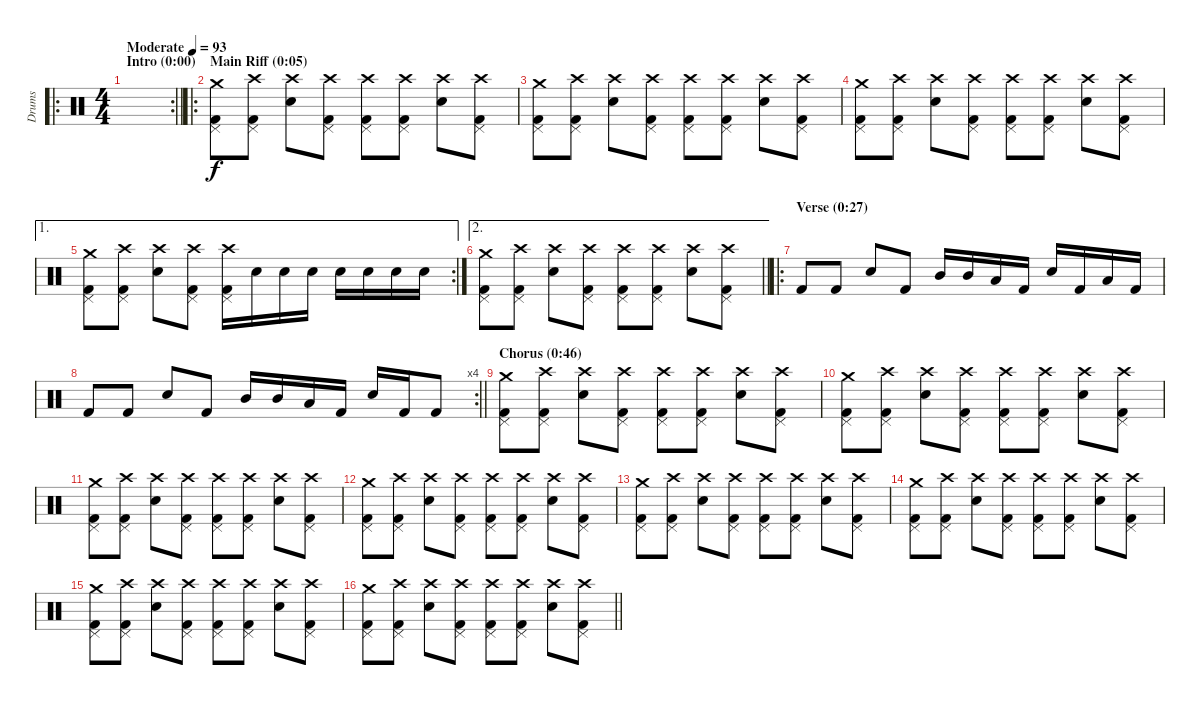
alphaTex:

\track ("Drums" "Drums") {instrument percussion}
\staff {score}
\articulation defaults
\ro
\rc 2
\ts (4 4)
\section ("" "Intro (0:00)")
\tempo (93 "Moderate")
\clef neutral
\barLineRight lightlight
\ks c
|
\ro
\section ("" "Main Riff (0:05)")
("Crash medium (hit)" "Pedal Hi-Hat (hit)" "Kick (hit) 2").8 ("Crash high (hit)" "Pedal Hi-Hat (hit)" "Kick (hit) 2").8 ("Crash high (hit)" "Electric Snare (hit)").8 ("Crash high (hit)" "Pedal Hi-Hat (hit)" "Kick (hit) 2").8 ("Crash high (hit)" "Pedal Hi-Hat (hit)" "Kick (hit) 2").8 ("Crash high (hit)" "Pedal Hi-Hat (hit)" "Kick (hit) 2").8 ("Crash high (hit)" "Electric Snare (hit)").8 ("Crash high (hit)" "Pedal Hi-Hat (hit)" "Kick (hit) 2").8 |
("Crash medium (hit)" "Pedal Hi-Hat (hit)" "Kick (hit) 2").8 ("Crash high (hit)" "Pedal Hi-Hat (hit)" "Kick (hit) 2").8 ("Crash high (hit)" "Electric Snare (hit)").8 ("Crash high (hit)" "Pedal Hi-Hat (hit)" "Kick (hit) 2").8 ("Crash high (hit)" "Pedal Hi-Hat (hit)" "Kick (hit) 2").8 ("Crash high (hit)" "Pedal Hi-Hat (hit)" "Kick (hit) 2").8 ("Crash high (hit)" "Electric Snare (hit)").8 ("Crash high (hit)" "Pedal Hi-Hat (hit)" "Kick (hit) 2").8 |
("Crash medium (hit)" "Pedal Hi-Hat (hit)" "Kick (hit) 2").8 ("Crash high (hit)" "Pedal Hi-Hat (hit)" "Kick (hit) 2").8 ("Crash high (hit)" "Electric Snare (hit)").8 ("Crash high (hit)" "Pedal Hi-Hat (hit)" "Kick (hit) 2").8 ("Crash high (hit)" "Pedal Hi-Hat (hit)" "Kick (hit) 2").8 ("Crash high (hit)" "Pedal Hi-Hat (hit)" "Kick (hit) 2").8 ("Crash high (hit)" "Electric Snare (hit)").8 ("Crash high (hit)" "Pedal Hi-Hat (hit)" "Kick (hit) 2").8 |
\ae 1
\rc 2
("Crash medium (hit)" "Pedal Hi-Hat (hit)" "Kick (hit) 2").8 ("Crash high (hit)" "Pedal Hi-Hat (hit)" "Kick (hit) 2").8 ("Crash high (hit)" "Electric Snare (hit)").8 ("Crash high (hit)" "Pedal Hi-Hat (hit)" "Kick (hit) 2").8 ("Crash high (hit)" "Pedal Hi-Hat (hit)" "Kick (hit) 2").16 "Electric Snare (hit)".16 "Electric Snare (hit)".16 "Electric Snare (hit)".16 "Electric Snare (hit)".16 "Electric Snare (hit)".16 "Electric Snare (hit)".16 "Electric Snare (hit)".16 |
\ae 2
\barLineRight lightlight
("Crash medium (hit)" "Pedal Hi-Hat (hit)" "Kick (hit) 2").8 ("Crash high (hit)" "Pedal Hi-Hat (hit)" "Kick (hit) 2").8 ("Crash high (hit)" "Electric Snare (hit)").8 ("Crash high (hit)" "Pedal Hi-Hat (hit)" "Kick (hit) 2").8 ("Crash high (hit)" "Pedal Hi-Hat (hit)" "Kick (hit) 2").8 ("Crash high (hit)" "Pedal Hi-Hat (hit)" "Kick (hit) 2").8 ("Crash high (hit)" "Electric Snare (hit)").8 ("Crash high (hit)" "Pedal Hi-Hat (hit)" "Kick (hit) 2").8 |
\ro
\section ("" "Verse (0:27)")
"Kick (hit) 2".8 "Kick (hit) 2".8 "Electric Snare (hit)".8 "Kick (hit) 2".8 "Mid Tom (hit)".16 "Mid Tom (hit)".16 "Low Tom (hit)".16 "Kick (hit) 2".16 "Electric Snare (hit)".16 "Kick (hit) 2".16 "Low Tom (hit)".16 "Kick (hit) 2".16 |
\rc 4
\barLineRight lightlight "Kick (hit) 2".8 "Kick (hit) 2".8 "Electric Snare (hit)".8 "Kick (hit) 2".8 "Mid Tom (hit)".16 "Mid Tom (hit)".16 "Low Tom (hit)".16 "Kick (hit) 2".16 "Electric Snare (hit)".16 "Kick (hit) 2".16 "Kick (hit) 2".8
|
\section ("" "Chorus (0:46)")
("Crash medium (hit)" "Pedal Hi-Hat (hit)" "Kick (hit) 2").8 ("Crash high (hit)" "Pedal Hi-Hat (hit)" "Kick (hit) 2").8 ("Crash high (hit)" "Electric Snare (hit)").8 ("Crash high (hit)" "Pedal Hi-Hat (hit)" "Kick (hit) 2").8 ("Crash high (hit)" "Pedal Hi-Hat (hit)" "Kick (hit) 2").8 ("Crash high (hit)" "Pedal Hi-Hat (hit)" "Kick (hit) 2").8 ("Crash high (hit)" "Electric Snare (hit)").8 ("Crash high (hit)" "Pedal Hi-Hat (hit)" "Kick (hit) 2").8 |
("Crash medium (hit)" "Pedal Hi-Hat (hit)" "Kick (hit) 2").8 ("Crash high (hit)" "Pedal Hi-Hat (hit)" "Kick (hit) 2").8 ("Crash high (hit)" "Electric Snare (hit)").8 ("Crash high (hit)" "Pedal Hi-Hat (hit)" "Kick (hit) 2").8 ("Crash high (hit)" "Pedal Hi-Hat (hit)" "Kick (hit) 2").8 ("Crash high (hit)" "Pedal Hi-Hat (hit)" "Kick (hit) 2").8 ("Crash high (hit)" "Electric Snare (hit)").8 ("Crash high (hit)" "Pedal Hi-Hat (hit)" "Kick (hit) 2").8 |
("Crash medium (hit)" "Pedal Hi-Hat (hit)" "Kick (hit) 2").8 ("Crash high (hit)" "Pedal Hi-Hat (hit)" "Kick (hit) 2").8 ("Crash high (hit)" "Electric Snare (hit)").8 ("Crash high (hit)" "Pedal Hi-Hat (hit)" "Kick (hit) 2").8 ("Crash high (hit)" "Pedal Hi-Hat (hit)" "Kick (hit) 2").8 ("Crash high (hit)" "Pedal Hi-Hat (hit)" "Kick (hit) 2").8 ("Crash high (hit)" "Electric Snare (hit)").8 ("Crash high (hit)" "Pedal Hi-Hat (hit)" "Kick (hit) 2").8 |
("Crash medium (hit)" "Pedal Hi-Hat (hit)" "Kick (hit) 2").8 ("Crash high (hit)" "Pedal Hi-Hat (hit)" "Kick (hit) 2").8 ("Crash high (hit)" "Electric Snare (hit)").8 ("Crash high (hit)" "Pedal Hi-Hat (hit)" "Kick (hit) 2").8 ("Crash high (hit)" "Pedal Hi-Hat (hit)" "Kick (hit) 2").8 ("Crash high (hit)" "Pedal Hi-Hat (hit)" "Kick (hit) 2").8 ("Crash high (hit)" "Electric Snare (hit)").8 ("Crash high (hit)" "Pedal Hi-Hat (hit)" "Kick (hit) 2").8 |
("Crash medium (hit)" "Pedal Hi-Hat (hit)" "Kick (hit) 2").8 ("Crash high (hit)" "Pedal Hi-Hat (hit)" "Kick (hit) 2").8 ("Crash high (hit)" "Electric Snare (hit)").8 ("Crash high (hit)" "Pedal Hi-Hat (hit)" "Kick (hit) 2").8 ("Crash high (hit)" "Pedal Hi-Hat (hit)" "Kick (hit) 2").8 ("Crash high (hit)" "Pedal Hi-Hat (hit)" "Kick (hit) 2").8 ("Crash high (hit)" "Electric Snare (hit)").8 ("Crash high (hit)" "Pedal Hi-Hat (hit)" "Kick (hit) 2").8 |
("Crash medium (hit)" "Pedal Hi-Hat (hit)" "Kick (hit) 2").8 ("Crash high (hit)" "Pedal Hi-Hat (hit)" "Kick (hit) 2").8 ("Crash high (hit)" "Electric Snare (hit)").8 ("Crash high (hit)" "Pedal Hi-Hat (hit)" "Kick (hit) 2").8 ("Crash high (hit)" "Pedal Hi-Hat (hit)" "Kick (hit) 2").8 ("Crash high (hit)" "Pedal Hi-Hat (hit)" "Kick (hit) 2").8 ("Crash high (hit)" "Electric Snare (hit)").8 ("Crash high (hit)" "Pedal Hi-Hat (hit)" "Kick (hit) 2").8 |
("Crash medium (hit)" "Pedal Hi-Hat (hit)" "Kick (hit) 2").8 ("Crash high (hit)" "Pedal Hi-Hat (hit)" "Kick (hit) 2").8 ("Crash high (hit)" "Electric Snare (hit)").8 ("Crash high (hit)" "Pedal Hi-Hat (hit)" "Kick (hit) 2").8 ("Crash high (hit)" "Pedal Hi-Hat (hit)" "Kick (hit) 2").8 ("Crash high (hit)" "Pedal Hi-Hat (hit)" "Kick (hit) 2").8 ("Crash high (hit)" "Electric Snare (hit)").8 ("Crash high (hit)" "Pedal Hi-Hat (hit)" "Kick (hit) 2").8 |
\barLineRight lightlight
("Crash medium (hit)" "Pedal Hi-Hat (hit)" "Kick (hit) 2").8 ("Crash high (hit)" "Pedal Hi-Hat (hit)" "Kick (hit) 2").8 ("Crash high (hit)" "Electric Snare (hit)").8 ("Crash high (hit)" "Pedal Hi-Hat (hit)" "Kick (hit) 2").8 ("Crash high (hit)" "Pedal Hi-Hat (hit)" "Kick (hit) 2").8 ("Crash high (hit)" "Pedal Hi-Hat (hit)" "Kick (hit) 2").8 ("Crash high (hit)" "Electric Snare (hit)").8 ("Crash high (hit)" "Pedal Hi-Hat (hit)" "Kick (hit) 2").8
